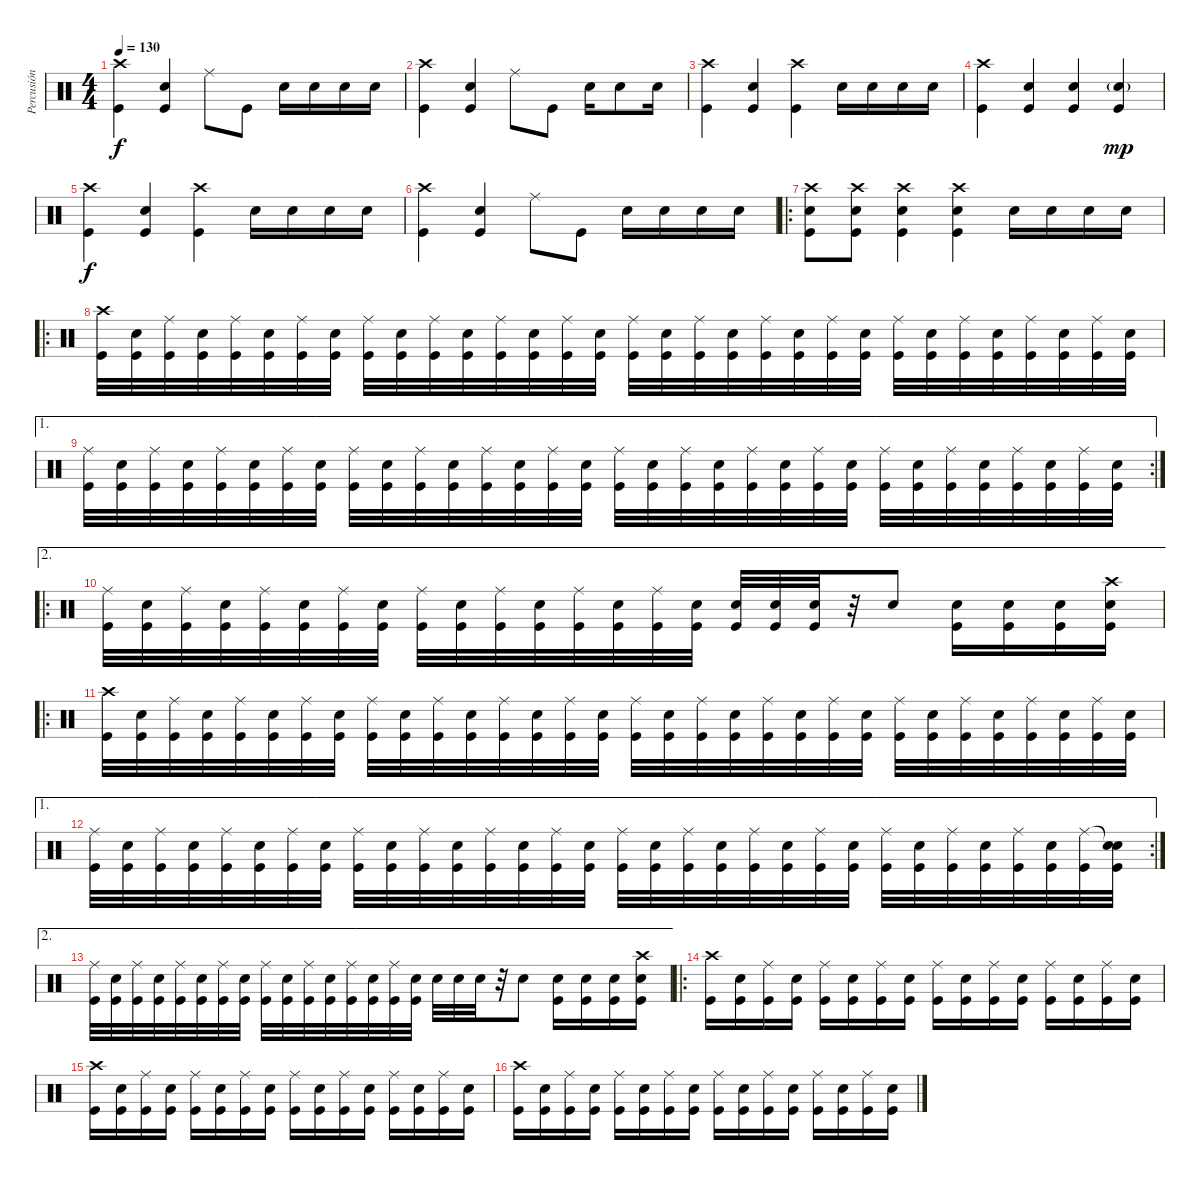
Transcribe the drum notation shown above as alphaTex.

\track ("Percusión" "Percusión") {instrument percussion}
\staff {score}
\articulation defaults
\ts (4 4)
\tempo 130
\clef neutral
\ks c
("Crash high (hit)" "Kick (hit)").4{dy f} ("Electric Snare (hit)" "Kick (hit)").4 "Ride (middle)".8 "Kick (hit)".8 "Electric Snare (hit)".16 "Electric Snare (hit)".16 "Electric Snare (hit)".16 "Electric Snare (hit)".16 |
("Crash high (hit)" "Kick (hit)").4 ("Electric Snare (hit)" "Kick (hit)").4 "Ride (middle)".8 "Kick (hit)".8 "Electric Snare (hit)".16 "Electric Snare (hit)".8 "Electric Snare (hit)".16 |
("Crash high (hit)" "Kick (hit)").4 ("Electric Snare (hit)" "Kick (hit)").4 ("Crash high (hit)" "Kick (hit)").4 "Electric Snare (hit)".16 "Electric Snare (hit)".16 "Electric Snare (hit)".16 "Electric Snare (hit)".16 |
("Crash high (hit)" "Kick (hit)").4 ("Electric Snare (hit)" "Kick (hit)").4 ("Snare (hit) 2" "Kick (hit)").4 ("Snare (hit) 2"{g} "Kick (hit)").4{dy mp} |
("Crash high (hit)" "Kick (hit)").4{dy f} ("Electric Snare (hit)" "Kick (hit)").4 ("Crash high (hit)" "Kick (hit)").4 "Electric Snare (hit)".16 "Electric Snare (hit)".16 "Electric Snare (hit)".16 "Electric Snare (hit)".16 |
("Crash high (hit)" "Kick (hit)").4 ("Electric Snare (hit)" "Kick (hit)").4 "Ride (middle)".8 "Kick (hit)".8 "Electric Snare (hit)".16 "Electric Snare (hit)".16 "Electric Snare (hit)".16 "Electric Snare (hit)".16 |
\ro
("Crash high (hit)" "Electric Snare (hit)" "Kick (hit)").8 ("Crash high (hit)" "Electric Snare (hit)" "Kick (hit)").8 ("Crash high (hit)" "Electric Snare (hit)" "Kick (hit)").4 ("Crash high (hit)" "Electric Snare (hit)" "Kick (hit)").4 "Electric Snare (hit)".16 "Electric Snare (hit)".16 "Electric Snare (hit)".16 "Electric Snare (hit)".16 |
\ro
("Crash high (hit)" "Kick (hit)").32 ("Electric Snare (hit)" "Kick (hit)").32 ("Ride (middle)" "Kick (hit)").32 ("Electric Snare (hit)" "Kick (hit)").32 ("Ride (middle)" "Kick (hit)").32 ("Electric Snare (hit)" "Kick (hit)").32 ("Ride (middle)" "Kick (hit)").32 ("Electric Snare (hit)" "Kick (hit)").32 ("Ride (middle)" "Kick (hit)").32 ("Electric Snare (hit)" "Kick (hit)").32 ("Ride (middle)" "Kick (hit)").32 ("Electric Snare (hit)" "Kick (hit)").32 ("Ride (middle)" "Kick (hit)").32 ("Electric Snare (hit)" "Kick (hit)").32 ("Ride (middle)" "Kick (hit)").32 ("Electric Snare (hit)" "Kick (hit)").32 ("Ride (middle)" "Kick (hit)").32 ("Electric Snare (hit)" "Kick (hit)").32 ("Ride (middle)" "Kick (hit)").32 ("Electric Snare (hit)" "Kick (hit)").32 ("Ride (middle)" "Kick (hit)").32 ("Electric Snare (hit)" "Kick (hit)").32 ("Ride (middle)" "Kick (hit)").32 ("Electric Snare (hit)" "Kick (hit)").32 ("Ride (middle)" "Kick (hit)").32 ("Electric Snare (hit)" "Kick (hit)").32 ("Ride (middle)" "Kick (hit)").32 ("Electric Snare (hit)" "Kick (hit)").32 ("Ride (middle)" "Kick (hit)").32 ("Electric Snare (hit)" "Kick (hit)").32 ("Ride (middle)" "Kick (hit)").32 ("Electric Snare (hit)" "Kick (hit)").32 |
\ae 1
\rc 2
("Ride (middle)" "Kick (hit)").32 ("Electric Snare (hit)" "Kick (hit)").32 ("Ride (middle)" "Kick (hit)").32 ("Electric Snare (hit)" "Kick (hit)").32 ("Ride (middle)" "Kick (hit)").32 ("Electric Snare (hit)" "Kick (hit)").32 ("Ride (middle)" "Kick (hit)").32 ("Electric Snare (hit)" "Kick (hit)").32 ("Ride (middle)" "Kick (hit)").32 ("Electric Snare (hit)" "Kick (hit)").32 ("Ride (middle)" "Kick (hit)").32 ("Electric Snare (hit)" "Kick (hit)").32 ("Ride (middle)" "Kick (hit)").32 ("Electric Snare (hit)" "Kick (hit)").32 ("Ride (middle)" "Kick (hit)").32 ("Electric Snare (hit)" "Kick (hit)").32 ("Ride (middle)" "Kick (hit)").32 ("Electric Snare (hit)" "Kick (hit)").32 ("Ride (middle)" "Kick (hit)").32 ("Electric Snare (hit)" "Kick (hit)").32 ("Ride (middle)" "Kick (hit)").32 ("Electric Snare (hit)" "Kick (hit)").32 ("Ride (middle)" "Kick (hit)").32 ("Electric Snare (hit)" "Kick (hit)").32 ("Ride (middle)" "Kick (hit)").32 ("Electric Snare (hit)" "Kick (hit)").32 ("Ride (middle)" "Kick (hit)").32 ("Electric Snare (hit)" "Kick (hit)").32 ("Ride (middle)" "Kick (hit)").32 ("Electric Snare (hit)" "Kick (hit)").32 ("Ride (middle)" "Kick (hit)").32 ("Electric Snare (hit)" "Kick (hit)").32 |
\ae 2
\ro
("Ride (middle)" "Kick (hit)").32 ("Electric Snare (hit)" "Kick (hit)").32 ("Ride (middle)" "Kick (hit)").32 ("Electric Snare (hit)" "Kick (hit)").32 ("Ride (middle)" "Kick (hit)").32 ("Electric Snare (hit)" "Kick (hit)").32 ("Ride (middle)" "Kick (hit)").32 ("Electric Snare (hit)" "Kick (hit)").32 ("Ride (middle)" "Kick (hit)").32 ("Electric Snare (hit)" "Kick (hit)").32 ("Ride (middle)" "Kick (hit)").32 ("Electric Snare (hit)" "Kick (hit)").32 ("Ride (middle)" "Kick (hit)").32 ("Electric Snare (hit)" "Kick (hit)").32 ("Ride (middle)" "Kick (hit)").32 ("Electric Snare (hit)" "Kick (hit)").32 ("Electric Snare (hit)" "Kick (hit)").32 ("Electric Snare (hit)" "Kick (hit)").32 ("Electric Snare (hit)" "Kick (hit)").32 r.32 "Electric Snare (hit)".8 ("Electric Snare (hit)" "Kick (hit)").16 ("Electric Snare (hit)" "Kick (hit)").16 ("Electric Snare (hit)" "Kick (hit)").16 ("Crash high (hit)" "Electric Snare (hit)" "Kick (hit)").16 |
\ro
("Crash high (hit)" "Kick (hit)").32 ("Electric Snare (hit)" "Kick (hit)").32 ("Ride (middle)" "Kick (hit)").32 ("Electric Snare (hit)" "Kick (hit)").32 ("Ride (middle)" "Kick (hit)").32 ("Electric Snare (hit)" "Kick (hit)").32 ("Ride (middle)" "Kick (hit)").32 ("Electric Snare (hit)" "Kick (hit)").32 ("Ride (middle)" "Kick (hit)").32 ("Electric Snare (hit)" "Kick (hit)").32 ("Ride (middle)" "Kick (hit)").32 ("Electric Snare (hit)" "Kick (hit)").32 ("Ride (middle)" "Kick (hit)").32 ("Electric Snare (hit)" "Kick (hit)").32 ("Ride (middle)" "Kick (hit)").32 ("Electric Snare (hit)" "Kick (hit)").32 ("Ride (middle)" "Kick (hit)").32 ("Electric Snare (hit)" "Kick (hit)").32 ("Ride (middle)" "Kick (hit)").32 ("Electric Snare (hit)" "Kick (hit)").32 ("Ride (middle)" "Kick (hit)").32 ("Electric Snare (hit)" "Kick (hit)").32 ("Ride (middle)" "Kick (hit)").32 ("Electric Snare (hit)" "Kick (hit)").32 ("Ride (middle)" "Kick (hit)").32 ("Electric Snare (hit)" "Kick (hit)").32 ("Ride (middle)" "Kick (hit)").32 ("Electric Snare (hit)" "Kick (hit)").32 ("Ride (middle)" "Kick (hit)").32 ("Electric Snare (hit)" "Kick (hit)").32 ("Ride (middle)" "Kick (hit)").32 ("Electric Snare (hit)" "Kick (hit)").32 |
\ae 1
\rc 2
("Ride (middle)" "Kick (hit)").32 ("Electric Snare (hit)" "Kick (hit)").32 ("Ride (middle)" "Kick (hit)").32 ("Electric Snare (hit)" "Kick (hit)").32 ("Ride (middle)" "Kick (hit)").32 ("Electric Snare (hit)" "Kick (hit)").32 ("Ride (middle)" "Kick (hit)").32 ("Electric Snare (hit)" "Kick (hit)").32 ("Ride (middle)" "Kick (hit)").32 ("Electric Snare (hit)" "Kick (hit)").32 ("Ride (middle)" "Kick (hit)").32 ("Electric Snare (hit)" "Kick (hit)").32 ("Ride (middle)" "Kick (hit)").32 ("Electric Snare (hit)" "Kick (hit)").32 ("Ride (middle)" "Kick (hit)").32 ("Electric Snare (hit)" "Kick (hit)").32 ("Ride (middle)" "Kick (hit)").32 ("Electric Snare (hit)" "Kick (hit)").32 ("Ride (middle)" "Kick (hit)").32 ("Electric Snare (hit)" "Kick (hit)").32 ("Ride (middle)" "Kick (hit)").32 ("Electric Snare (hit)" "Kick (hit)").32 ("Ride (middle)" "Kick (hit)").32 ("Electric Snare (hit)" "Kick (hit)").32 ("Ride (middle)" "Kick (hit)").32 ("Electric Snare (hit)" "Kick (hit)").32 ("Ride (middle)" "Kick (hit)").32 ("Electric Snare (hit)" "Kick (hit)").32 ("Ride (middle)" "Kick (hit)").32 ("Electric Snare (hit)" "Kick (hit)").32 ("Ride (middle)" "Kick (hit)").32 ("Snare (hit)"{t} "Electric Snare (hit)" "Kick (hit)").32 |
\ae 2
("Ride (middle)" "Kick (hit)").32 ("Electric Snare (hit)" "Kick (hit)").32 ("Ride (middle)" "Kick (hit)").32 ("Electric Snare (hit)" "Kick (hit)").32 ("Ride (middle)" "Kick (hit)").32 ("Electric Snare (hit)" "Kick (hit)").32 ("Ride (middle)" "Kick (hit)").32 ("Electric Snare (hit)" "Kick (hit)").32 ("Ride (middle)" "Kick (hit)").32 ("Electric Snare (hit)" "Kick (hit)").32 ("Ride (middle)" "Kick (hit)").32 ("Electric Snare (hit)" "Kick (hit)").32 ("Ride (middle)" "Kick (hit)").32 ("Electric Snare (hit)" "Kick (hit)").32 ("Ride (middle)" "Kick (hit)").32 ("Electric Snare (hit)" "Kick (hit)").32 "Electric Snare (hit)".32 "Electric Snare (hit)".32 "Electric Snare (hit)".32 r.32 "Electric Snare (hit)".8 ("Electric Snare (hit)" "Kick (hit)").16 ("Electric Snare (hit)" "Kick (hit)").16 ("Electric Snare (hit)" "Kick (hit)").16 ("Crash high (hit)" "Electric Snare (hit)" "Kick (hit)").16 |
\ro
("Crash high (hit)" "Kick (hit)").16 ("Electric Snare (hit)" "Kick (hit)").16 ("Ride (middle)" "Kick (hit)").16 ("Electric Snare (hit)" "Kick (hit)").16 ("Ride (middle)" "Kick (hit)").16 ("Electric Snare (hit)" "Kick (hit)").16 ("Ride (middle)" "Kick (hit)").16 ("Electric Snare (hit)" "Kick (hit)").16 ("Ride (middle)" "Kick (hit)").16 ("Electric Snare (hit)" "Kick (hit)").16 ("Ride (middle)" "Kick (hit)").16 ("Electric Snare (hit)" "Kick (hit)").16 ("Ride (middle)" "Kick (hit)").16 ("Electric Snare (hit)" "Kick (hit)").16 ("Ride (middle)" "Kick (hit)").16 ("Electric Snare (hit)" "Kick (hit)").16 |
("Crash high (hit)" "Kick (hit)").16 ("Electric Snare (hit)" "Kick (hit)").16 ("Ride (middle)" "Kick (hit)").16 ("Electric Snare (hit)" "Kick (hit)").16 ("Ride (middle)" "Kick (hit)").16 ("Electric Snare (hit)" "Kick (hit)").16 ("Ride (middle)" "Kick (hit)").16 ("Electric Snare (hit)" "Kick (hit)").16 ("Ride (middle)" "Kick (hit)").16 ("Electric Snare (hit)" "Kick (hit)").16 ("Ride (middle)" "Kick (hit)").16 ("Electric Snare (hit)" "Kick (hit)").16 ("Ride (middle)" "Kick (hit)").16 ("Electric Snare (hit)" "Kick (hit)").16 ("Ride (middle)" "Kick (hit)").16 ("Electric Snare (hit)" "Kick (hit)").16 |
("Crash high (hit)" "Kick (hit)").16 ("Electric Snare (hit)" "Kick (hit)").16 ("Ride (middle)" "Kick (hit)").16 ("Electric Snare (hit)" "Kick (hit)").16 ("Ride (middle)" "Kick (hit)").16 ("Electric Snare (hit)" "Kick (hit)").16 ("Ride (middle)" "Kick (hit)").16 ("Electric Snare (hit)" "Kick (hit)").16 ("Ride (middle)" "Kick (hit)").16 ("Electric Snare (hit)" "Kick (hit)").16 ("Ride (middle)" "Kick (hit)").16 ("Electric Snare (hit)" "Kick (hit)").16 ("Ride (middle)" "Kick (hit)").16 ("Electric Snare (hit)" "Kick (hit)").16 ("Ride (middle)" "Kick (hit)").16 ("Electric Snare (hit)" "Kick (hit)").16
